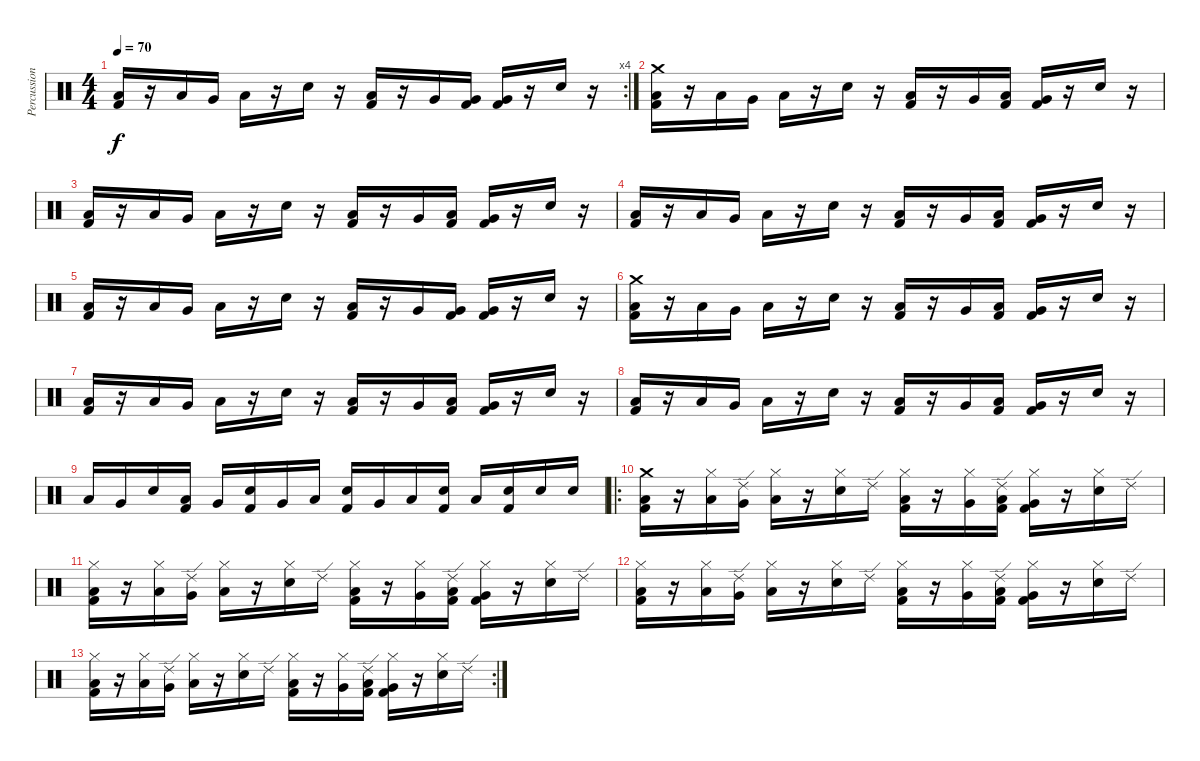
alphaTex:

\track ("Percussion" "Percussion") {instrument percussion}
\staff {score}
\articulation defaults
\rc 4
\ts (4 4)
\tempo 70
\clef neutral
\ks c
("Low Floor Tom (hit)" "Kick (hit) 2").16{dy f} r.16 "Low Floor Tom (hit)".16 "Very Low Tom (hit)".16 "Low Floor Tom (hit)".16 r.16 "Electric Snare (hit)".16 r.16 ("Low Floor Tom (hit)" "Kick (hit) 2").16 r.16 "Very Low Tom (hit)".16 ("Very Low Tom (hit)" "Kick (hit) 2").16 ("Very Low Tom (hit)" "Kick (hit) 2").16 r.16 "Electric Snare (hit)".16 r.16 |
("Crash medium (hit)" "Low Floor Tom (hit)" "Kick (hit) 2").16 r.16 "Low Floor Tom (hit)".16 "Very Low Tom (hit)".16 "Low Floor Tom (hit)".16 r.16 "Electric Snare (hit)".16 r.16 ("Low Floor Tom (hit)" "Kick (hit) 2").16 r.16 "Very Low Tom (hit)".16 ("Low Floor Tom (hit)" "Kick (hit) 2").16 ("Very Low Tom (hit)" "Kick (hit) 2").16 r.16 "Electric Snare (hit)".16 r.16 |
("Low Floor Tom (hit)" "Kick (hit) 2").16 r.16 "Low Floor Tom (hit)".16 "Very Low Tom (hit)".16 "Low Floor Tom (hit)".16 r.16 "Electric Snare (hit)".16 r.16 ("Low Floor Tom (hit)" "Kick (hit) 2").16 r.16 "Very Low Tom (hit)".16 ("Low Floor Tom (hit)" "Kick (hit) 2").16 ("Very Low Tom (hit)" "Kick (hit) 2").16 r.16 "Electric Snare (hit)".16 r.16 |
("Low Floor Tom (hit)" "Kick (hit) 2").16 r.16 "Low Floor Tom (hit)".16 "Very Low Tom (hit)".16 "Low Floor Tom (hit)".16 r.16 "Electric Snare (hit)".16 r.16 ("Low Floor Tom (hit)" "Kick (hit) 2").16 r.16 "Very Low Tom (hit)".16 ("Low Floor Tom (hit)" "Kick (hit) 2").16 ("Very Low Tom (hit)" "Kick (hit) 2").16 r.16 "Electric Snare (hit)".16 r.16 |
("Low Floor Tom (hit)" "Kick (hit) 2").16 r.16 "Low Floor Tom (hit)".16 "Very Low Tom (hit)".16 "Low Floor Tom (hit)".16 r.16 "Electric Snare (hit)".16 r.16 ("Low Floor Tom (hit)" "Kick (hit) 2").16 r.16 "Very Low Tom (hit)".16 ("Very Low Tom (hit)" "Kick (hit) 2").16 ("Very Low Tom (hit)" "Kick (hit) 2").16 r.16 "Electric Snare (hit)".16 r.16 |
("Crash medium (hit)" "Low Floor Tom (hit)" "Kick (hit) 2").16 r.16 "Low Floor Tom (hit)".16 "Very Low Tom (hit)".16 "Low Floor Tom (hit)".16 r.16 "Electric Snare (hit)".16 r.16 ("Low Floor Tom (hit)" "Kick (hit) 2").16 r.16 "Very Low Tom (hit)".16 ("Low Floor Tom (hit)" "Kick (hit) 2").16 ("Very Low Tom (hit)" "Kick (hit) 2").16 r.16 "Electric Snare (hit)".16 r.16 |
("Low Floor Tom (hit)" "Kick (hit) 2").16 r.16 "Low Floor Tom (hit)".16 "Very Low Tom (hit)".16 "Low Floor Tom (hit)".16 r.16 "Electric Snare (hit)".16 r.16 ("Low Floor Tom (hit)" "Kick (hit) 2").16 r.16 "Very Low Tom (hit)".16 ("Low Floor Tom (hit)" "Kick (hit) 2").16 ("Very Low Tom (hit)" "Kick (hit) 2").16 r.16 "Electric Snare (hit)".16 r.16 |
("Low Floor Tom (hit)" "Kick (hit) 2").16 r.16 "Low Floor Tom (hit)".16 "Very Low Tom (hit)".16 "Low Floor Tom (hit)".16 r.16 "Electric Snare (hit)".16 r.16 ("Low Floor Tom (hit)" "Kick (hit) 2").16 r.16 "Very Low Tom (hit)".16 ("Low Floor Tom (hit)" "Kick (hit) 2").16 ("Very Low Tom (hit)" "Kick (hit) 2").16 r.16 "Electric Snare (hit)".16 r.16 |
"Low Floor Tom (hit)".16 "Very Low Tom (hit)".16 "Electric Snare (hit)".16 ("Low Floor Tom (hit)" "Kick (hit) 2").16 "Very Low Tom (hit)".16 ("Electric Snare (hit)" "Kick (hit) 2").16 "Very Low Tom (hit)".16 "Low Floor Tom (hit)".16 ("Electric Snare (hit)" "Kick (hit) 2").16 "Very Low Tom (hit)".16 "Low Floor Tom (hit)".16 ("Electric Snare (hit)" "Kick (hit) 2").16 "Low Floor Tom (hit)".16 ("Electric Snare (hit)" "Kick (hit) 2").16 "Electric Snare (hit)".16 "Electric Snare (hit)".16 |
\ro
("Crash medium (hit)" "Low Floor Tom (hit)" "Kick (hit) 2").16 r.16 ("Hi-Hat (closed)" "Low Floor Tom (hit)").16 ("Ride (edge) 2" "Very Low Tom (hit)").16 ("Hi-Hat (closed)" "Low Floor Tom (hit)").16 r.16 ("Hi-Hat (closed)" "Electric Snare (hit)").16 "Ride (edge) 2".16 ("Hi-Hat (closed)" "Low Floor Tom (hit)" "Kick (hit) 2").16 r.16 ("Hi-Hat (closed)" "Very Low Tom (hit)").16 ("Ride (edge) 2" "Low Floor Tom (hit)" "Kick (hit) 2").16 ("Hi-Hat (closed)" "Very Low Tom (hit)" "Kick (hit) 2").16 r.16 ("Hi-Hat (closed)" "Electric Snare (hit)").16 "Ride (edge) 2".16 |
("Hi-Hat (closed)" "Low Floor Tom (hit)" "Kick (hit) 2").16 r.16 ("Hi-Hat (closed)" "Low Floor Tom (hit)").16 ("Ride (edge) 2" "Very Low Tom (hit)").16 ("Hi-Hat (closed)" "Low Floor Tom (hit)").16 r.16 ("Hi-Hat (closed)" "Electric Snare (hit)").16 "Ride (edge) 2".16 ("Hi-Hat (closed)" "Low Floor Tom (hit)" "Kick (hit) 2").16 r.16 ("Hi-Hat (closed)" "Very Low Tom (hit)").16 ("Ride (edge) 2" "Low Floor Tom (hit)" "Kick (hit) 2").16 ("Hi-Hat (closed)" "Very Low Tom (hit)" "Kick (hit) 2").16 r.16 ("Hi-Hat (closed)" "Electric Snare (hit)").16 "Ride (edge) 2".16 |
("Hi-Hat (closed)" "Low Floor Tom (hit)" "Kick (hit) 2").16 r.16 ("Hi-Hat (closed)" "Low Floor Tom (hit)").16 ("Ride (edge) 2" "Very Low Tom (hit)").16 ("Hi-Hat (closed)" "Low Floor Tom (hit)").16 r.16 ("Hi-Hat (closed)" "Electric Snare (hit)").16 "Ride (edge) 2".16 ("Hi-Hat (closed)" "Low Floor Tom (hit)" "Kick (hit) 2").16 r.16 ("Hi-Hat (closed)" "Very Low Tom (hit)").16 ("Ride (edge) 2" "Low Floor Tom (hit)" "Kick (hit) 2").16 ("Hi-Hat (closed)" "Very Low Tom (hit)" "Kick (hit) 2").16 r.16 ("Hi-Hat (closed)" "Electric Snare (hit)").16 "Ride (edge) 2".16 |
\rc 2
("Hi-Hat (closed)" "Low Floor Tom (hit)" "Kick (hit) 2").16 r.16 ("Hi-Hat (closed)" "Low Floor Tom (hit)").16 ("Ride (edge) 2" "Very Low Tom (hit)").16 ("Hi-Hat (closed)" "Low Floor Tom (hit)").16 r.16 ("Hi-Hat (closed)" "Electric Snare (hit)").16 "Ride (edge) 2".16 ("Hi-Hat (closed)" "Low Floor Tom (hit)" "Kick (hit) 2").16 r.16 ("Hi-Hat (closed)" "Very Low Tom (hit)").16 ("Ride (edge) 2" "Low Floor Tom (hit)" "Kick (hit) 2").16 ("Hi-Hat (closed)" "Very Low Tom (hit)" "Kick (hit) 2").16 r.16 ("Hi-Hat (closed)" "Electric Snare (hit)").16 "Ride (edge) 2".16
